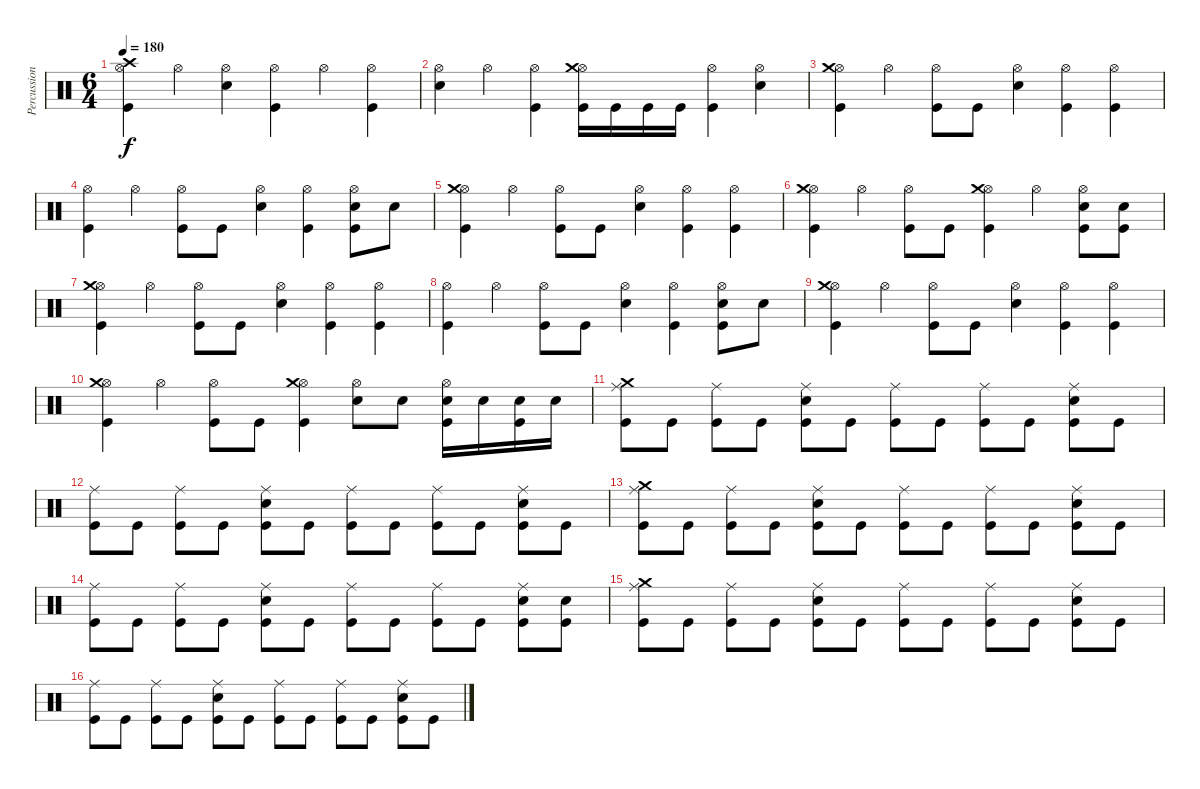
\track ("Percussion" "Percussion") {instrument percussion}
\staff {score}
\articulation defaults
\ts (6 4)
\tempo 180
\clef neutral
\ks c
("Crash high (hit)" "Hi-Hat (open)" "Kick (hit)").4{dy f} "Hi-Hat (open)".4 ("Hi-Hat (open)" "Electric Snare (hit)").4 ("Hi-Hat (open)" "Kick (hit)").4 "Hi-Hat (open)".4 ("Hi-Hat (open)" "Kick (hit)").4 |
("Hi-Hat (open)" "Electric Snare (hit)").4 "Hi-Hat (open)".4 ("Hi-Hat (open)" "Kick (hit)").4 ("Hi-Hat (open)" "Crash medium (hit)" "Kick (hit)").16 "Kick (hit)".16 "Kick (hit)".16 "Kick (hit)".16 ("Hi-Hat (open)" "Kick (hit)").4 ("Hi-Hat (open)" "Electric Snare (hit)").4 |
("Hi-Hat (open)" "Crash medium (hit)" "Kick (hit)").4 "Hi-Hat (open)".4 ("Hi-Hat (open)" "Kick (hit)").8 "Kick (hit)".8 ("Hi-Hat (open)" "Electric Snare (hit)").4 ("Hi-Hat (open)" "Kick (hit)").4 ("Hi-Hat (open)" "Kick (hit)").4 |
("Hi-Hat (open)" "Kick (hit)").4 "Hi-Hat (open)".4 ("Hi-Hat (open)" "Kick (hit)").8 "Kick (hit)".8 ("Hi-Hat (open)" "Electric Snare (hit)").4 ("Hi-Hat (open)" "Kick (hit)").4 ("Hi-Hat (open)" "Electric Snare (hit)" "Kick (hit)").8 "Electric Snare (hit)".8 |
("Hi-Hat (open)" "Crash medium (hit)" "Kick (hit)").4 "Hi-Hat (open)".4 ("Hi-Hat (open)" "Kick (hit)").8 "Kick (hit)".8 ("Hi-Hat (open)" "Electric Snare (hit)").4 ("Hi-Hat (open)" "Kick (hit)").4 ("Hi-Hat (open)" "Kick (hit)").4 |
("Hi-Hat (open)" "Crash medium (hit)" "Kick (hit)").4 "Hi-Hat (open)".4 ("Hi-Hat (open)" "Kick (hit)").8 "Kick (hit)".8 ("Hi-Hat (open)" "Crash medium (hit)" "Kick (hit)").4 "Hi-Hat (open)".4 ("Hi-Hat (open)" "Electric Snare (hit)" "Kick (hit)").8 ("Electric Snare (hit)" "Kick (hit)").8 |
("Hi-Hat (open)" "Crash medium (hit)" "Kick (hit)").4 "Hi-Hat (open)".4 ("Hi-Hat (open)" "Kick (hit)").8 "Kick (hit)".8 ("Hi-Hat (open)" "Electric Snare (hit)").4 ("Hi-Hat (open)" "Kick (hit)").4 ("Hi-Hat (open)" "Kick (hit)").4 |
("Hi-Hat (open)" "Kick (hit)").4 "Hi-Hat (open)".4 ("Hi-Hat (open)" "Kick (hit)").8 "Kick (hit)".8 ("Hi-Hat (open)" "Electric Snare (hit)").4 ("Hi-Hat (open)" "Kick (hit)").4 ("Hi-Hat (open)" "Electric Snare (hit)" "Kick (hit)").8 "Electric Snare (hit)".8 |
("Hi-Hat (open)" "Crash medium (hit)" "Kick (hit)").4 "Hi-Hat (open)".4 ("Hi-Hat (open)" "Kick (hit)").8 "Kick (hit)".8 ("Hi-Hat (open)" "Electric Snare (hit)").4 ("Hi-Hat (open)" "Kick (hit)").4 ("Hi-Hat (open)" "Kick (hit)").4 |
("Hi-Hat (open)" "Crash medium (hit)" "Kick (hit)").4 "Hi-Hat (open)".4 ("Hi-Hat (open)" "Kick (hit)").8 "Kick (hit)".8 ("Hi-Hat (open)" "Crash medium (hit)" "Kick (hit)").4 ("Hi-Hat (open)" "Electric Snare (hit)").8 "Electric Snare (hit)".8 ("Hi-Hat (open)" "Electric Snare (hit)" "Kick (hit)").16 "Electric Snare (hit)".16 ("Electric Snare (hit)" "Kick (hit)").16 "Electric Snare (hit)".16 |
("Crash medium (hit)" "Ride (middle)" "Kick (hit)").8 "Kick (hit)".8 ("Ride (middle)" "Kick (hit)").8 "Kick (hit)".8 ("Electric Snare (hit)" "Ride (middle)" "Kick (hit)").8 "Kick (hit)".8 ("Ride (middle)" "Kick (hit)").8 "Kick (hit)".8 ("Ride (middle)" "Kick (hit)").8 "Kick (hit)".8 ("Electric Snare (hit)" "Ride (middle)" "Kick (hit)").8 "Kick (hit)".8 |
("Ride (middle)" "Kick (hit)").8 "Kick (hit)".8 ("Ride (middle)" "Kick (hit)").8 "Kick (hit)".8 ("Electric Snare (hit)" "Ride (middle)" "Kick (hit)").8 "Kick (hit)".8 ("Ride (middle)" "Kick (hit)").8 "Kick (hit)".8 ("Ride (middle)" "Kick (hit)").8 "Kick (hit)".8 ("Electric Snare (hit)" "Ride (middle)" "Kick (hit)").8 "Kick (hit)".8 |
("Crash medium (hit)" "Ride (middle)" "Kick (hit)").8 "Kick (hit)".8 ("Ride (middle)" "Kick (hit)").8 "Kick (hit)".8 ("Electric Snare (hit)" "Ride (middle)" "Kick (hit)").8 "Kick (hit)".8 ("Ride (middle)" "Kick (hit)").8 "Kick (hit)".8 ("Ride (middle)" "Kick (hit)").8 "Kick (hit)".8 ("Electric Snare (hit)" "Ride (middle)" "Kick (hit)").8 "Kick (hit)".8 |
("Ride (middle)" "Kick (hit)").8 "Kick (hit)".8 ("Ride (middle)" "Kick (hit)").8 "Kick (hit)".8 ("Electric Snare (hit)" "Ride (middle)" "Kick (hit)").8 "Kick (hit)".8 ("Ride (middle)" "Kick (hit)").8 "Kick (hit)".8 ("Ride (middle)" "Kick (hit)").8 "Kick (hit)".8 ("Electric Snare (hit)" "Ride (middle)" "Kick (hit)").8 ("Electric Snare (hit)" "Kick (hit)").8 |
("Crash medium (hit)" "Ride (middle)" "Kick (hit)").8 "Kick (hit)".8 ("Ride (middle)" "Kick (hit)").8 "Kick (hit)".8 ("Electric Snare (hit)" "Ride (middle)" "Kick (hit)").8 "Kick (hit)".8 ("Ride (middle)" "Kick (hit)").8 "Kick (hit)".8 ("Ride (middle)" "Kick (hit)").8 "Kick (hit)".8 ("Electric Snare (hit)" "Ride (middle)" "Kick (hit)").8 "Kick (hit)".8 |
("Ride (middle)" "Kick (hit)").8 "Kick (hit)".8 ("Ride (middle)" "Kick (hit)").8 "Kick (hit)".8 ("Electric Snare (hit)" "Ride (middle)" "Kick (hit)").8 "Kick (hit)".8 ("Ride (middle)" "Kick (hit)").8 "Kick (hit)".8 ("Ride (middle)" "Kick (hit)").8 "Kick (hit)".8 ("Electric Snare (hit)" "Ride (middle)" "Kick (hit)").8 "Kick (hit)".8
